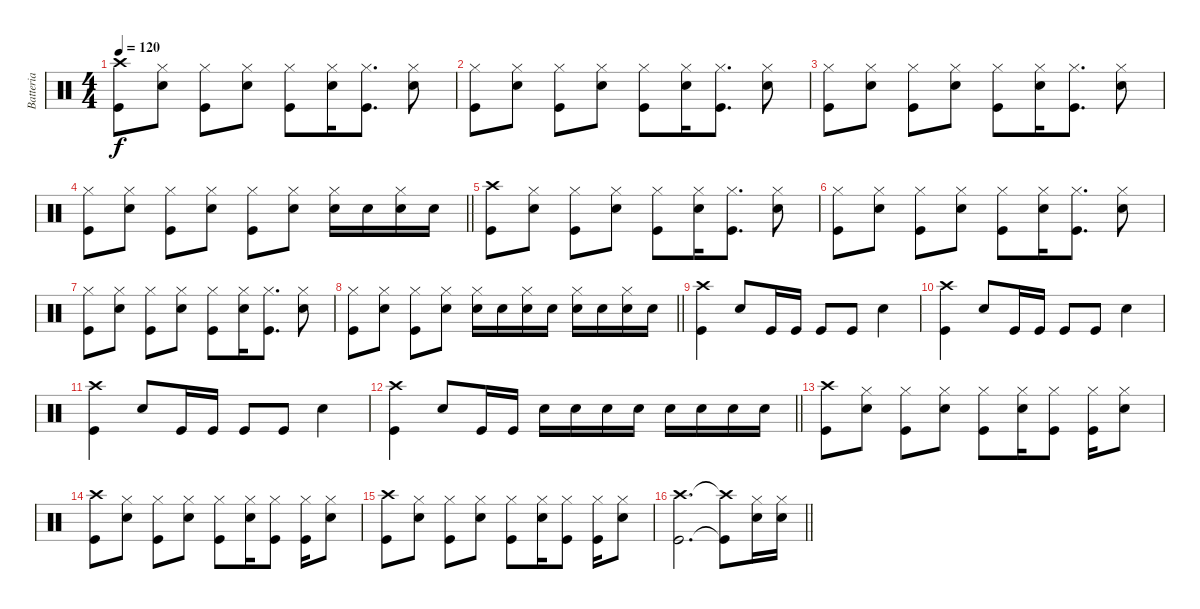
\track ("Batteria" "Batteria") {instrument percussion}
\staff {score}
\articulation defaults
\ts (4 4)
\tempo 120
\clef neutral
\ks c
("Kick (hit)" "Crash high (hit)").8{dy f} ("Snare (hit) 2" "Hi-Hat (closed)").8 ("Kick (hit)" "Hi-Hat (closed)").8 ("Snare (hit) 2" "Hi-Hat (closed)").8 ("Kick (hit)" "Hi-Hat (closed)").8 ("Snare (hit) 2" "Hi-Hat (closed)").16 ("Kick (hit)" "Hi-Hat (closed)").8{d} ("Snare (hit) 2" "Hi-Hat (closed)").8 |
("Kick (hit)" "Hi-Hat (closed)").8 ("Snare (hit) 2" "Hi-Hat (closed)").8 ("Kick (hit)" "Hi-Hat (closed)").8 ("Snare (hit) 2" "Hi-Hat (closed)").8 ("Kick (hit)" "Hi-Hat (closed)").8 ("Snare (hit) 2" "Hi-Hat (closed)").16 ("Kick (hit)" "Hi-Hat (closed)").8{d} ("Snare (hit) 2" "Hi-Hat (closed)").8 |
("Kick (hit)" "Hi-Hat (closed)").8 ("Snare (hit) 2" "Hi-Hat (closed)").8 ("Kick (hit)" "Hi-Hat (closed)").8 ("Snare (hit) 2" "Hi-Hat (closed)").8 ("Kick (hit)" "Hi-Hat (closed)").8 ("Snare (hit) 2" "Hi-Hat (closed)").16 ("Kick (hit)" "Hi-Hat (closed)").8{d} ("Snare (hit) 2" "Hi-Hat (closed)").8 |
\barLineRight lightlight
("Kick (hit)" "Hi-Hat (closed)").8 ("Snare (hit) 2" "Hi-Hat (closed)").8 ("Kick (hit)" "Hi-Hat (closed)").8 ("Snare (hit) 2" "Hi-Hat (closed)").8 ("Kick (hit)" "Hi-Hat (closed)").8 ("Snare (hit) 2" "Hi-Hat (closed)").8 ("Snare (hit) 2" "Hi-Hat (closed)").16 "Snare (hit) 2".16 ("Snare (hit) 2" "Hi-Hat (closed)").16 "Snare (hit) 2".16 |
("Kick (hit)" "Crash high (hit)").8 ("Snare (hit) 2" "Hi-Hat (closed)").8 ("Kick (hit)" "Hi-Hat (closed)").8 ("Snare (hit) 2" "Hi-Hat (closed)").8 ("Kick (hit)" "Hi-Hat (closed)").8 ("Snare (hit) 2" "Hi-Hat (closed)").16 ("Kick (hit)" "Hi-Hat (closed)").8{d} ("Snare (hit) 2" "Hi-Hat (closed)").8 |
("Kick (hit)" "Hi-Hat (closed)").8 ("Snare (hit) 2" "Hi-Hat (closed)").8 ("Kick (hit)" "Hi-Hat (closed)").8 ("Snare (hit) 2" "Hi-Hat (closed)").8 ("Kick (hit)" "Hi-Hat (closed)").8 ("Snare (hit) 2" "Hi-Hat (closed)").16 ("Kick (hit)" "Hi-Hat (closed)").8{d} ("Snare (hit) 2" "Hi-Hat (closed)").8 |
("Kick (hit)" "Hi-Hat (closed)").8 ("Snare (hit) 2" "Hi-Hat (closed)").8 ("Kick (hit)" "Hi-Hat (closed)").8 ("Snare (hit) 2" "Hi-Hat (closed)").8 ("Kick (hit)" "Hi-Hat (closed)").8 ("Snare (hit) 2" "Hi-Hat (closed)").16 ("Kick (hit)" "Hi-Hat (closed)").8{d} ("Snare (hit) 2" "Hi-Hat (closed)").8 |
\barLineRight lightlight
("Kick (hit)" "Hi-Hat (closed)").8 ("Snare (hit) 2" "Hi-Hat (closed)").8 ("Kick (hit)" "Hi-Hat (closed)").8 ("Snare (hit) 2" "Hi-Hat (closed)").8 ("Snare (hit) 2" "Hi-Hat (closed)").16 "Snare (hit) 2".16 ("Snare (hit) 2" "Hi-Hat (closed)").16 "Snare (hit) 2".16 ("Snare (hit) 2" "Hi-Hat (closed)").16 "Snare (hit) 2".16 ("Snare (hit) 2" "Hi-Hat (closed)").16 "Snare (hit) 2".16 |
("Kick (hit)" "Crash high (hit)").4 "Snare (hit) 2".8 "Kick (hit)".16 "Kick (hit)".16 "Kick (hit)".8 "Kick (hit)".8 "Snare (hit) 2".4 |
("Kick (hit)" "Crash high (hit)").4 "Snare (hit) 2".8 "Kick (hit)".16 "Kick (hit)".16 "Kick (hit)".8 "Kick (hit)".8 "Snare (hit) 2".4 |
("Kick (hit)" "Crash high (hit)").4 "Snare (hit) 2".8 "Kick (hit)".16 "Kick (hit)".16 "Kick (hit)".8 "Kick (hit)".8 "Snare (hit) 2".4 |
\barLineRight lightlight
("Kick (hit)" "Crash high (hit)").4 "Snare (hit) 2".8 "Kick (hit)".16 "Kick (hit)".16 "Snare (hit) 2".16 "Snare (hit) 2".16 "Snare (hit) 2".16 "Snare (hit) 2".16 "Snare (hit) 2".16 "Snare (hit) 2".16 "Snare (hit) 2".16 "Snare (hit) 2".16 |
("Kick (hit)" "Crash high (hit)").8 ("Snare (hit) 2" "Hi-Hat (closed)").8 ("Kick (hit)" "Hi-Hat (closed)").8 ("Snare (hit) 2" "Hi-Hat (closed)").8 ("Kick (hit)" "Hi-Hat (closed)").8 ("Snare (hit) 2" "Hi-Hat (closed)").16 ("Kick (hit)" "Hi-Hat (closed)").8 ("Kick (hit)" "Hi-Hat (closed)").16 ("Snare (hit) 2" "Hi-Hat (closed)").8 |
("Kick (hit)" "Crash high (hit)").8 ("Snare (hit) 2" "Hi-Hat (closed)").8 ("Kick (hit)" "Hi-Hat (closed)").8 ("Snare (hit) 2" "Hi-Hat (closed)").8 ("Kick (hit)" "Hi-Hat (closed)").8 ("Snare (hit) 2" "Hi-Hat (closed)").16 ("Kick (hit)" "Hi-Hat (closed)").8 ("Kick (hit)" "Hi-Hat (closed)").16 ("Snare (hit) 2" "Hi-Hat (closed)").8 |
("Kick (hit)" "Crash high (hit)").8 ("Snare (hit) 2" "Hi-Hat (closed)").8 ("Kick (hit)" "Hi-Hat (closed)").8 ("Snare (hit) 2" "Hi-Hat (closed)").8 ("Kick (hit)" "Hi-Hat (closed)").8 ("Snare (hit) 2" "Hi-Hat (closed)").16 ("Kick (hit)" "Hi-Hat (closed)").8 ("Kick (hit)" "Hi-Hat (closed)").16 ("Snare (hit) 2" "Hi-Hat (closed)").8 |
\barLineRight lightlight
("Kick (hit)" "Crash high (hit)").2{d} ("Kick (hit)"{t} "Crash high (hit)"{t}).8 ("Snare (hit) 2" "Hi-Hat (closed)").16 ("Snare (hit) 2" "Hi-Hat (closed)").16
